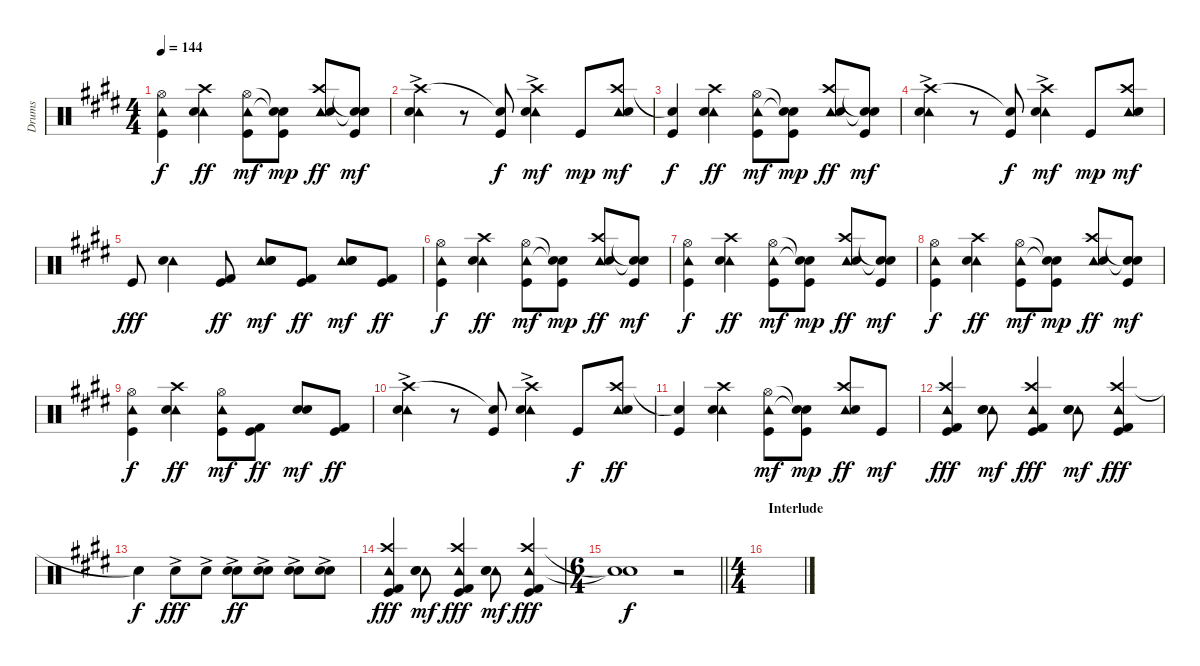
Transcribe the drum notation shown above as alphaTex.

\track ("Drums" "Drums") {instrument percussion}
\staff {score}
\articulation defaults
\ts (4 4)
\tempo 144
\clef neutral
\ks c#minor
("Hi-Hat (open)" "Tambourine (hit)" "Kick (hit)").4{dy f} ("Crash high (hit)" "Tambourine (hit)" "Snare (hit) 2").4{dy ff} ("Hi-Hat (open)" "Tambourine (hit)" "Kick (hit)").8{dy mf} ("Snare (hit)"{t} "Snare (hit)"{t} "Kick (hit)").8{dy mp} ("Crash high (hit)" "Tambourine (hit)" "Snare (hit) 2").8{dy ff} ("Snare (hit)"{t} "Snare (hit)"{t} "Kick (hit)").8{dy mf} |
("Crash high (hit)"{ac} "Tambourine (hit)" "Snare (hit) 2").4 r.8 ("Snare (hit)"{t} "Kick (hit)").8{dy f} ("Crash high (hit)"{ac} "Tambourine (hit)" "Snare (hit) 2").4{dy mf} "Kick (hit)".8{dy mp} ("Crash high (hit)" "Tambourine (hit)" "Snare (hit) 2").8{dy mf} |
\ks e
("Snare (hit)"{t} "Kick (hit)").4{dy f} ("Crash high (hit)" "Tambourine (hit)" "Snare (hit) 2").4{dy ff} ("Hi-Hat (open)" "Tambourine (hit)" "Kick (hit)").8{dy mf} ("Snare (hit)"{t} "Snare (hit)"{t} "Kick (hit)").8{dy mp} ("Crash high (hit)" "Tambourine (hit)" "Snare (hit) 2").8{dy ff} ("Snare (hit)"{t} "Snare (hit)"{t} "Kick (hit)").8{dy mf} |
\ks c#minor
("Crash high (hit)"{ac} "Tambourine (hit)" "Snare (hit) 2").4 r.8 ("Snare (hit)"{t} "Kick (hit)").8{dy f} ("Crash high (hit)"{ac} "Tambourine (hit)" "Snare (hit) 2").4{dy mf} "Kick (hit)".8{dy mp} ("Crash high (hit)" "Tambourine (hit)" "Snare (hit) 2").8{dy mf} |
"Kick (hit)".8{dy fff} ("Tambourine (hit)" "Snare (hit) 2").4 ("Kick (hit) 2" "Kick (hit)").8{dy ff} ("Tambourine (hit)" "Snare (hit) 2" "Electric Snare (hit)").8{dy mf} ("Kick (hit) 2" "Kick (hit)").8{dy ff} ("Tambourine (hit)" "Snare (hit) 2" "Electric Snare (hit)").8{dy mf} ("Kick (hit) 2" "Kick (hit)").8{dy ff} |
("Hi-Hat (open)" "Tambourine (hit)" "Kick (hit)").4{dy f} ("Crash high (hit)" "Tambourine (hit)" "Snare (hit) 2").4{dy ff} ("Hi-Hat (open)" "Tambourine (hit)" "Kick (hit)").8{dy mf} ("Snare (hit)"{t} "Snare (hit)"{t} "Kick (hit)").8{dy mp} ("Crash high (hit)" "Tambourine (hit)" "Snare (hit) 2").8{dy ff} ("Snare (hit)"{t} "Snare (hit)"{t} "Kick (hit)").8{dy mf} |
("Hi-Hat (open)" "Tambourine (hit)" "Kick (hit)").4{dy f} ("Crash high (hit)" "Tambourine (hit)" "Snare (hit) 2").4{dy ff} ("Hi-Hat (open)" "Tambourine (hit)" "Kick (hit)").8{dy mf} ("Snare (hit)"{t} "Snare (hit)"{t} "Kick (hit)").8{dy mp} ("Crash high (hit)" "Tambourine (hit)" "Snare (hit) 2").8{dy ff} ("Snare (hit)"{t} "Snare (hit)"{t} "Kick (hit)").8{dy mf} |
("Hi-Hat (open)" "Tambourine (hit)" "Kick (hit)").4{dy f} ("Crash high (hit)" "Tambourine (hit)" "Snare (hit) 2").4{dy ff} ("Hi-Hat (open)" "Tambourine (hit)" "Kick (hit)").8{dy mf} ("Snare (hit)"{t} "Snare (hit)"{t} "Kick (hit)").8{dy mp} ("Crash high (hit)" "Tambourine (hit)" "Snare (hit) 2").8{dy ff} ("Snare (hit)"{t} "Snare (hit)"{t} "Kick (hit)").8{dy mf} |
\ks e
("Hi-Hat (open)" "Tambourine (hit)" "Kick (hit)").4{dy f} ("Crash high (hit)" "Tambourine (hit)" "Snare (hit) 2").4{dy ff} ("Hi-Hat (open)" "Tambourine (hit)" "Kick (hit)").8{dy mf} ("Kick (hit) 2" "Kick (hit)").8{dy ff} ("Snare (hit) 2" "Electric Snare (hit)").8{dy mf} ("Kick (hit) 2" "Kick (hit)").8{dy ff} |
\ks c#minor
("Crash high (hit)"{ac} "Tambourine (hit)" "Snare (hit) 2").4 r.8 ("Snare (hit)"{t} "Kick (hit)").8 ("Crash high (hit)"{ac} "Tambourine (hit)" "Snare (hit) 2").4 "Kick (hit)".8{dy f} ("Crash high (hit)" "Tambourine (hit)" "Snare (hit) 2").8{dy ff} |
\ks e
("Snare (hit)"{t} "Kick (hit)").4 ("Crash high (hit)" "Tambourine (hit)" "Snare (hit) 2").4 ("Hi-Hat (open)" "Tambourine (hit)" "Kick (hit)").8{dy mf} ("Snare (hit)"{t} "Snare (hit)"{t} "Kick (hit)").8{dy mp} ("Crash high (hit)" "Tambourine (hit)" "Snare (hit) 2").8{dy ff} "Kick (hit)".8{dy mf} |
\ks c#minor
("Crash high (hit)" "Tambourine (hit)" "Kick (hit) 2" "Kick (hit)").4{dy fff} ("Tambourine (hit)" "Snare (hit) 2" "Electric Snare (hit)").8{dy mf} ("Crash high (hit)" "Tambourine (hit)" "Kick (hit) 2" "Kick (hit)").4{dy fff} ("Tambourine (hit)" "Snare (hit) 2" "Electric Snare (hit)").8{dy mf} ("Crash high (hit)" "Tambourine (hit)" "Kick (hit) 2" "Kick (hit)").4{dy fff} |
"Snare (hit)"{t}.4{dy f} "Snare (hit) 2"{ac}.8{dy fff} "Snare (hit) 2"{ac}.8 ("Snare (hit) 2"{ac} "Electric Snare (hit)"{ac}).8{dy ff} ("Snare (hit) 2"{ac} "Electric Snare (hit)"{ac}).8 ("Snare (hit) 2"{ac} "Electric Snare (hit)"{ac}).8 ("Snare (hit) 2"{ac} "Electric Snare (hit)"{ac}).8 |
("Crash high (hit)" "Tambourine (hit)" "Kick (hit) 2" "Kick (hit)").4{dy fff} ("Tambourine (hit)" "Snare (hit) 2" "Electric Snare (hit)").8{dy mf} ("Crash high (hit)" "Tambourine (hit)" "Kick (hit) 2" "Kick (hit)").4{dy fff} ("Tambourine (hit)" "Snare (hit) 2" "Electric Snare (hit)").8{dy mf} ("Crash high (hit)" "Tambourine (hit)" "Kick (hit) 2" "Kick (hit)").4{dy fff} |
\ts (6 4)
\barLineRight lightlight
("Snare (hit)"{t} "Snare (hit)"{t}).1{dy f} r.2 |
\ts (4 4)
\section ("" "Interlude")
\ks e
